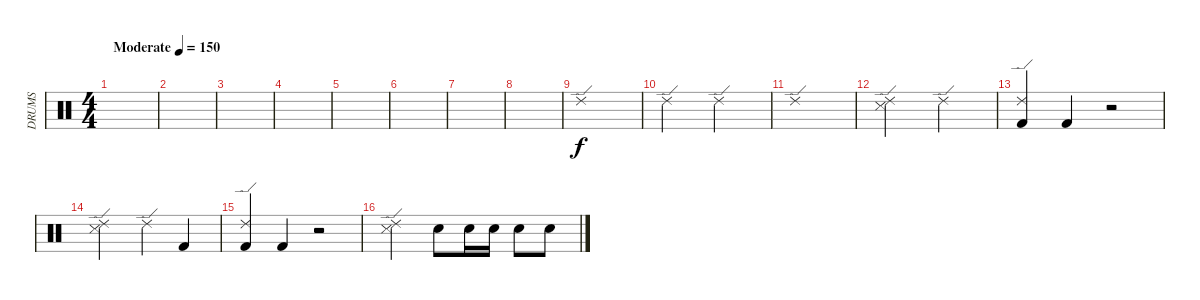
\track ("DRUMS" "DRUMS") {instrument percussion}
\staff {score}
\articulation defaults
\ts (4 4)
\tempo (150 "Moderate")
\clef neutral
\ks c
|
|
|
|
|
|
|
|
"Ride (edge) 2".1 |
"Ride (edge) 2".2 "Ride (edge) 2".2 |
"Ride (edge) 2".1 |
("Ride (edge) 2" "Snare (side stick) 3").2 "Ride (edge) 2".2 |
("Ride (edge) 2" "Kick (hit) 2").4 "Kick (hit) 2".4 r.2 |
("Ride (edge) 2" "Snare (side stick) 3").2 "Ride (edge) 2".4 "Kick (hit) 2".4 |
("Ride (edge) 2" "Kick (hit) 2").4 "Kick (hit) 2".4 r.2 |
("Ride (edge) 2" "Snare (side stick) 3").2 "Electric Snare (hit)".8 "Electric Snare (hit)".16 "Electric Snare (hit)".16 "Electric Snare (hit)".8 "Electric Snare (hit)".8
